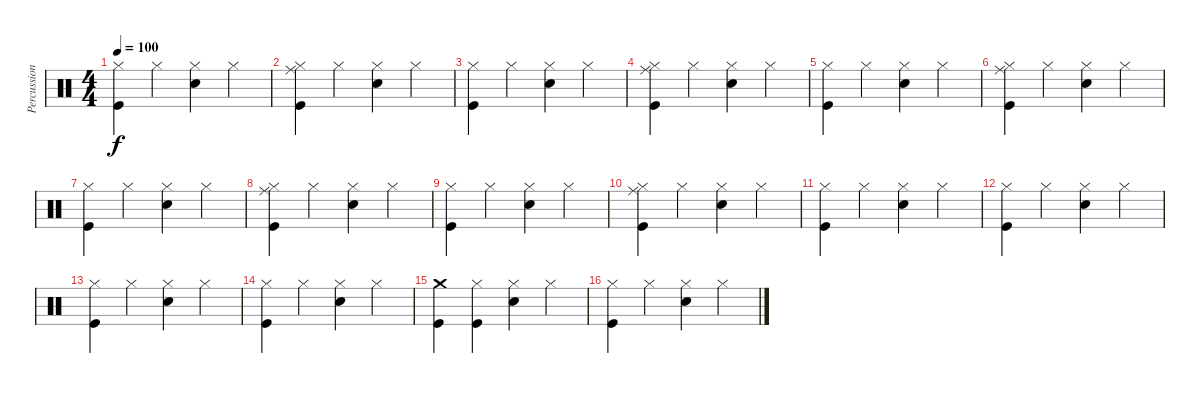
\track ("Percussion" "Percussion") {instrument percussion}
\staff {score}
\articulation defaults
\ts (4 4)
\tempo 100
\clef neutral
\ks c
("Hi-Hat (closed)" "Kick (hit)").4{dy f} "Hi-Hat (closed)".4 ("Hi-Hat (closed)" "Electric Snare (hit)").4 "Hi-Hat (closed)".4 |
("Hi-Hat (closed)" "Kick (hit)" "Ride (middle)").4 "Hi-Hat (closed)".4 ("Hi-Hat (closed)" "Electric Snare (hit)").4 "Hi-Hat (closed)".4 |
("Hi-Hat (closed)" "Kick (hit)").4 "Hi-Hat (closed)".4 ("Hi-Hat (closed)" "Electric Snare (hit)").4 "Hi-Hat (closed)".4 |
("Hi-Hat (closed)" "Kick (hit)" "Ride (middle)").4 "Hi-Hat (closed)".4 ("Hi-Hat (closed)" "Electric Snare (hit)").4 "Hi-Hat (closed)".4 |
("Hi-Hat (closed)" "Kick (hit)").4 "Hi-Hat (closed)".4 ("Hi-Hat (closed)" "Electric Snare (hit)").4 "Hi-Hat (closed)".4 |
("Hi-Hat (closed)" "Kick (hit)" "Ride (middle)").4 "Hi-Hat (closed)".4 ("Hi-Hat (closed)" "Electric Snare (hit)").4 "Hi-Hat (closed)".4 |
("Hi-Hat (closed)" "Kick (hit)").4 "Hi-Hat (closed)".4 ("Hi-Hat (closed)" "Electric Snare (hit)").4 "Hi-Hat (closed)".4 |
("Hi-Hat (closed)" "Kick (hit)" "Ride (middle)").4 "Hi-Hat (closed)".4 ("Hi-Hat (closed)" "Electric Snare (hit)").4 "Hi-Hat (closed)".4 |
("Hi-Hat (closed)" "Kick (hit)").4 "Hi-Hat (closed)".4 ("Hi-Hat (closed)" "Electric Snare (hit)").4 "Hi-Hat (closed)".4 |
("Hi-Hat (closed)" "Kick (hit)" "Ride (middle)").4 "Hi-Hat (closed)".4 ("Hi-Hat (closed)" "Electric Snare (hit)").4 "Hi-Hat (closed)".4 |
("Hi-Hat (closed)" "Kick (hit)").4 "Hi-Hat (closed)".4 ("Hi-Hat (closed)" "Electric Snare (hit)").4 "Hi-Hat (closed)".4 |
("Hi-Hat (closed)" "Kick (hit)").4 "Hi-Hat (closed)".4 ("Hi-Hat (closed)" "Electric Snare (hit)").4 "Hi-Hat (closed)".4 |
("Hi-Hat (closed)" "Kick (hit)").4 "Hi-Hat (closed)".4 ("Hi-Hat (closed)" "Electric Snare (hit)").4 "Hi-Hat (closed)".4 |
("Hi-Hat (closed)" "Kick (hit)").4 "Hi-Hat (closed)".4 ("Hi-Hat (closed)" "Electric Snare (hit)").4 "Hi-Hat (closed)".4 |
("Crash medium (hit)" "Kick (hit)").4 ("Hi-Hat (closed)" "Kick (hit)").4 ("Hi-Hat (closed)" "Electric Snare (hit)").4 "Hi-Hat (closed)".4 |
("Hi-Hat (closed)" "Kick (hit)").4 "Hi-Hat (closed)".4 ("Hi-Hat (closed)" "Electric Snare (hit)").4 "Hi-Hat (closed)".4
